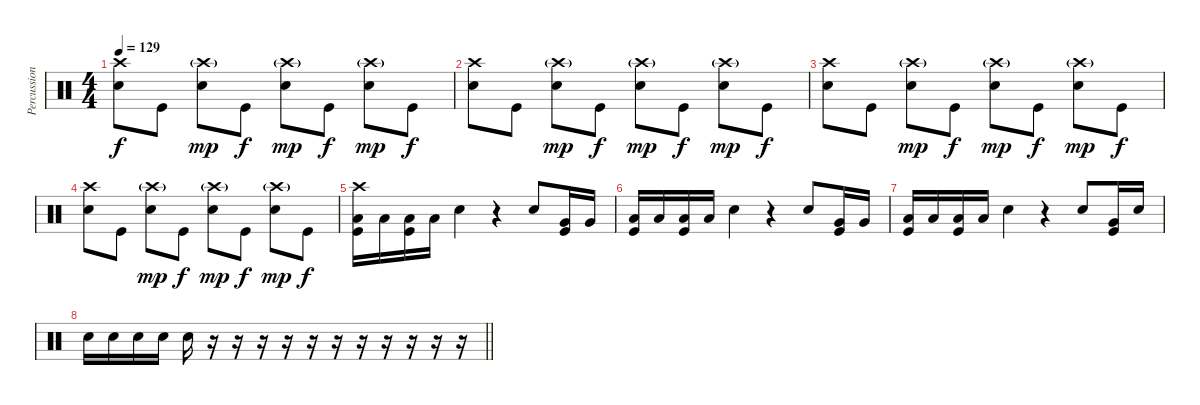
\track ("Percussion" "Percussion") {instrument percussion}
\staff {score}
\articulation defaults
\ts (4 4)
\tempo 129
\clef neutral
\ks c
("Crash high (hit)" "Electric Snare (hit)").8{dy f} "Kick (hit)".8 ("Crash high (hit)"{g} "Electric Snare (hit)").8{dy mp} "Kick (hit)".8{dy f} ("Crash high (hit)"{g} "Electric Snare (hit)").8{dy mp} "Kick (hit)".8{dy f} ("Crash high (hit)"{g} "Electric Snare (hit)").8{dy mp} "Kick (hit)".8{dy f} |
("Crash high (hit)" "Electric Snare (hit)").8 "Kick (hit)".8 ("Crash high (hit)"{g} "Electric Snare (hit)").8{dy mp} "Kick (hit)".8{dy f} ("Crash high (hit)"{g} "Electric Snare (hit)").8{dy mp} "Kick (hit)".8{dy f} ("Crash high (hit)"{g} "Electric Snare (hit)").8{dy mp} "Kick (hit)".8{dy f} |
("Crash high (hit)" "Electric Snare (hit)").8 "Kick (hit)".8 ("Crash high (hit)"{g} "Electric Snare (hit)").8{dy mp} "Kick (hit)".8{dy f} ("Crash high (hit)"{g} "Electric Snare (hit)").8{dy mp} "Kick (hit)".8{dy f} ("Crash high (hit)"{g} "Electric Snare (hit)").8{dy mp} "Kick (hit)".8{dy f} |
("Crash high (hit)" "Electric Snare (hit)").8 "Kick (hit)".8 ("Crash high (hit)"{g} "Electric Snare (hit)").8{dy mp} "Kick (hit)".8{dy f} ("Crash high (hit)"{g} "Electric Snare (hit)").8{dy mp} "Kick (hit)".8{dy f} ("Crash high (hit)"{g} "Electric Snare (hit)").8{dy mp} "Kick (hit)".8{dy f} |
("Crash high (hit)" "Low Tom (hit)" "Kick (hit)").16 "Low Tom (hit)".16 ("Low Floor Tom (hit)" "Kick (hit)").16 "Low Floor Tom (hit)".16 "Electric Snare (hit)".4 r.4 "Electric Snare (hit)".8 ("Very Low Tom (hit)" "Kick (hit)").16 "Very Low Tom (hit)".16 |
("Low Tom (hit)" "Kick (hit)").16 "Low Tom (hit)".16 ("Low Floor Tom (hit)" "Kick (hit)").16 "Low Floor Tom (hit)".16 "Electric Snare (hit)".4 r.4 "Electric Snare (hit)".8 ("Very Low Tom (hit)" "Kick (hit)").16 "Very Low Tom (hit)".16 |
("Low Tom (hit)" "Kick (hit)").16 "Low Tom (hit)".16 ("Low Floor Tom (hit)" "Kick (hit)").16 "Low Floor Tom (hit)".16 "Electric Snare (hit)".4 r.4 "Electric Snare (hit)".8 ("Very Low Tom (hit)" "Kick (hit)").16 "Electric Snare (hit)".16 |
\barLineRight lightlight "Electric Snare (hit)".16 "Electric Snare (hit)".16 "Electric Snare (hit)".16 "Electric Snare (hit)".16 "Electric Snare (hit)".16
r.16 r.16 r.16 r.16 r.16 r.16 r.16 r.16 r.16 r.16 r.16
